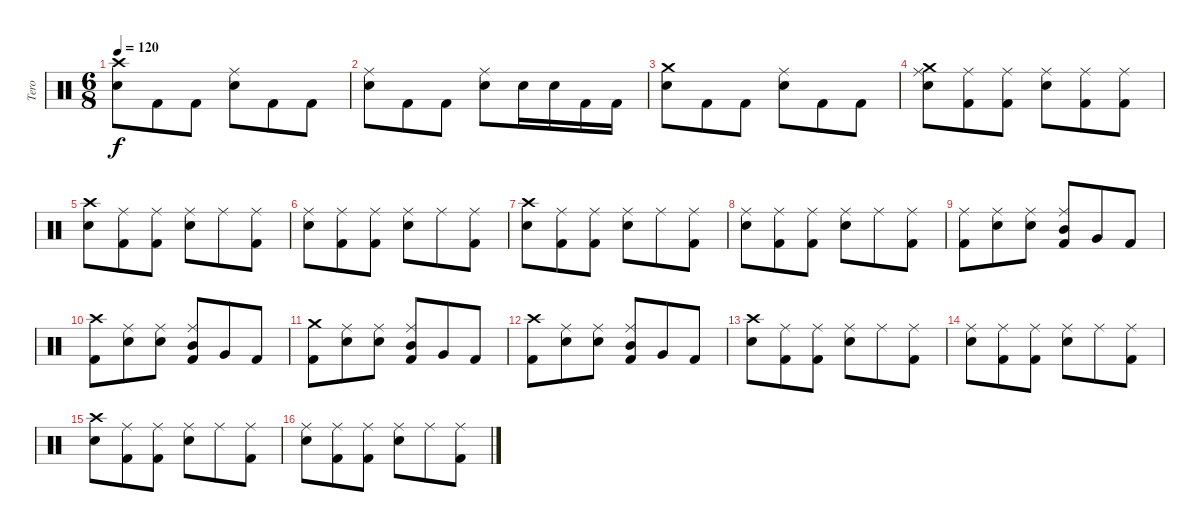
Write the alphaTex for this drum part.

\track ("Tero" "Tero") {instrument percussion}
\staff {score}
\articulation defaults
\ts (6 8)
\tempo 120
\clef neutral
\ks c
("Crash high (hit)" "Snare (hit) 2").8{dy f} "Kick (hit) 2".8 "Kick (hit) 2".8 ("Ride (middle)" "Snare (hit) 2").8 "Kick (hit) 2".8 "Kick (hit) 2".8 |
("Ride (middle)" "Snare (hit) 2").8 "Kick (hit) 2".8 "Kick (hit) 2".8 ("Ride (middle)" "Snare (hit) 2").8 "Snare (hit) 2".16 "Snare (hit) 2".16 "Kick (hit) 2".16 "Kick (hit) 2".16 |
("Crash medium (hit)" "Snare (hit) 2").8 "Kick (hit) 2".8 "Kick (hit) 2".8 ("Ride (middle)" "Snare (hit) 2").8 "Kick (hit) 2".8 "Kick (hit) 2".8 |
("Ride (middle)" "Snare (hit) 2" "Crash medium (hit)").8 ("Ride (middle)" "Kick (hit) 2").8 ("Ride (middle)" "Kick (hit) 2").8 ("Ride (middle)" "Snare (hit) 2").8 ("Ride (middle)" "Kick (hit) 2").8 ("Ride (middle)" "Kick (hit) 2").8 |
("Crash high (hit)" "Snare (hit) 2").8 ("Ride (middle)" "Kick (hit) 2").8 ("Ride (middle)" "Kick (hit) 2").8 ("Ride (middle)" "Snare (hit) 2").8 "Ride (middle)".8 ("Ride (middle)" "Kick (hit) 2").8 |
("Ride (middle)" "Snare (hit) 2").8 ("Ride (middle)" "Kick (hit) 2").8 ("Ride (middle)" "Kick (hit) 2").8 ("Ride (middle)" "Snare (hit) 2").8 "Ride (middle)".8 ("Ride (middle)" "Kick (hit) 2").8 |
("Crash high (hit)" "Snare (hit) 2").8 ("Ride (middle)" "Kick (hit) 2").8 ("Ride (middle)" "Kick (hit) 2").8 ("Ride (middle)" "Snare (hit) 2").8 "Ride (middle)".8 ("Ride (middle)" "Kick (hit) 2").8 |
("Ride (middle)" "Snare (hit) 2").8 ("Ride (middle)" "Kick (hit) 2").8 ("Ride (middle)" "Kick (hit) 2").8 ("Ride (middle)" "Snare (hit) 2").8 "Ride (middle)".8 ("Ride (middle)" "Kick (hit) 2").8 |
("Kick (hit) 2" "Ride (middle)").8 ("Snare (hit) 2" "Ride (middle)").8 ("Snare (hit) 2" "Ride (middle)").8 ("Ride (middle)" "Mid Tom (hit)" "Kick (hit) 2").8 "Very Low Tom (hit)".8 "Kick (hit) 2".8 |
("Crash high (hit)" "Kick (hit) 2").8 ("Snare (hit) 2" "Ride (middle)").8 ("Snare (hit) 2" "Ride (middle)").8 ("Ride (middle)" "Mid Tom (hit)" "Kick (hit) 2").8 "Very Low Tom (hit)".8 "Kick (hit) 2".8 |
("Crash medium (hit)" "Kick (hit) 2").8 ("Snare (hit) 2" "Ride (middle)").8 ("Snare (hit) 2" "Ride (middle)").8 ("Ride (middle)" "Mid Tom (hit)" "Kick (hit) 2").8 "Very Low Tom (hit)".8 "Kick (hit) 2".8 |
("Crash high (hit)" "Kick (hit) 2").8 ("Snare (hit) 2" "Ride (middle)").8 ("Snare (hit) 2" "Ride (middle)").8 ("Ride (middle)" "Mid Tom (hit)" "Kick (hit) 2").8 "Very Low Tom (hit)".8 "Kick (hit) 2".8 |
("Crash high (hit)" "Snare (hit) 2").8 ("Ride (middle)" "Kick (hit) 2").8 ("Ride (middle)" "Kick (hit) 2").8 ("Ride (middle)" "Snare (hit) 2").8 "Ride (middle)".8 ("Ride (middle)" "Kick (hit) 2").8 |
("Ride (middle)" "Snare (hit) 2").8 ("Ride (middle)" "Kick (hit) 2").8 ("Ride (middle)" "Kick (hit) 2").8 ("Ride (middle)" "Snare (hit) 2").8 "Ride (middle)".8 ("Ride (middle)" "Kick (hit) 2").8 |
("Crash high (hit)" "Snare (hit) 2").8 ("Ride (middle)" "Kick (hit) 2").8 ("Ride (middle)" "Kick (hit) 2").8 ("Ride (middle)" "Snare (hit) 2").8 "Ride (middle)".8 ("Ride (middle)" "Kick (hit) 2").8 |
("Ride (middle)" "Snare (hit) 2").8 ("Ride (middle)" "Kick (hit) 2").8 ("Ride (middle)" "Kick (hit) 2").8 ("Ride (middle)" "Snare (hit) 2").8 "Ride (middle)".8 ("Ride (middle)" "Kick (hit) 2").8
